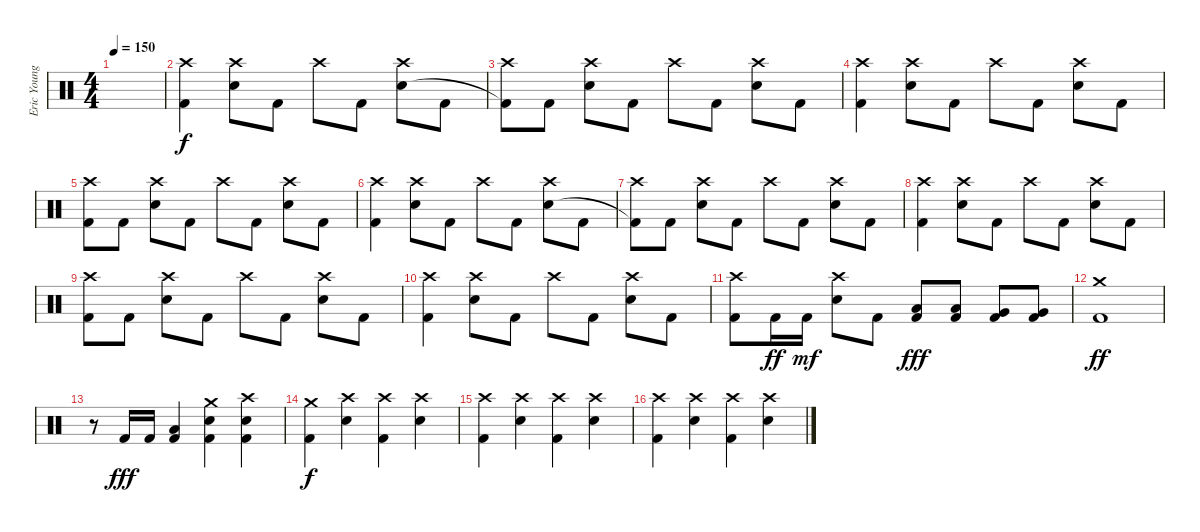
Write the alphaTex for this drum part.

\track ("Eric Young" "Eric Young") {instrument percussion}
\staff {score}
\articulation defaults
\ts (4 4)
\tempo 150
\clef neutral
\ks c
|
("Crash high (hit)" "Kick (hit) 2").4 ("Crash high (hit)" "Electric Snare (hit)").8 "Kick (hit) 2".8 "Crash high (hit)".8 "Kick (hit) 2".8 ("Crash high (hit)" "Electric Snare (hit)").8 "Kick (hit) 2".8 |
("Crash high (hit)" "Kick (hit) 2"{t}).8 "Kick (hit) 2".8 ("Crash high (hit)" "Electric Snare (hit)").8 "Kick (hit) 2".8 "Crash high (hit)".8 "Kick (hit) 2".8 ("Crash high (hit)" "Electric Snare (hit)").8 "Kick (hit) 2".8 |
("Crash high (hit)" "Kick (hit) 2").4 ("Crash high (hit)" "Electric Snare (hit)").8 "Kick (hit) 2".8 "Crash high (hit)".8 "Kick (hit) 2".8 ("Crash high (hit)" "Electric Snare (hit)").8 "Kick (hit) 2".8 |
("Crash high (hit)" "Kick (hit) 2").8 "Kick (hit) 2".8 ("Crash high (hit)" "Electric Snare (hit)").8 "Kick (hit) 2".8 "Crash high (hit)".8 "Kick (hit) 2".8 ("Crash high (hit)" "Electric Snare (hit)").8 "Kick (hit) 2".8 |
("Crash high (hit)" "Kick (hit) 2").4 ("Crash high (hit)" "Electric Snare (hit)").8 "Kick (hit) 2".8 "Crash high (hit)".8 "Kick (hit) 2".8 ("Crash high (hit)" "Electric Snare (hit)").8 "Kick (hit) 2".8 |
("Crash high (hit)" "Kick (hit) 2"{t}).8 "Kick (hit) 2".8 ("Crash high (hit)" "Electric Snare (hit)").8 "Kick (hit) 2".8 "Crash high (hit)".8 "Kick (hit) 2".8 ("Crash high (hit)" "Electric Snare (hit)").8 "Kick (hit) 2".8 |
("Crash high (hit)" "Kick (hit) 2").4 ("Crash high (hit)" "Electric Snare (hit)").8 "Kick (hit) 2".8 "Crash high (hit)".8 "Kick (hit) 2".8 ("Crash high (hit)" "Electric Snare (hit)").8 "Kick (hit) 2".8 |
("Crash high (hit)" "Kick (hit) 2").8 "Kick (hit) 2".8 ("Crash high (hit)" "Electric Snare (hit)").8 "Kick (hit) 2".8 "Crash high (hit)".8 "Kick (hit) 2".8 ("Crash high (hit)" "Electric Snare (hit)").8 "Kick (hit) 2".8 |
("Crash high (hit)" "Kick (hit) 2").4 ("Crash high (hit)" "Electric Snare (hit)").8 "Kick (hit) 2".8 "Crash high (hit)".8 "Kick (hit) 2".8 ("Crash high (hit)" "Electric Snare (hit)").8 "Kick (hit) 2".8 |
("Crash high (hit)" "Kick (hit) 2").8 "Kick (hit) 2".16{dy ff} "Kick (hit) 2".16{dy mf} ("Crash high (hit)" "Electric Snare (hit)").8 "Kick (hit) 2".8 ("Low Tom (hit)" "Kick (hit) 2").8{dy fff} ("Low Tom (hit)" "Kick (hit) 2").8 ("Very Low Tom (hit)" "Kick (hit) 2").8 ("Very Low Tom (hit)" "Kick (hit) 2").8 |
("Crash medium (hit)" "Kick (hit) 2").1{dy ff} |
r.8 "Kick (hit) 2".16{dy fff} "Kick (hit) 2".16 ("Low Tom (hit)" "Kick (hit) 2").4 ("Crash medium (hit)" "Electric Snare (hit)" "Kick (hit) 2").4 ("Crash high (hit)" "Electric Snare (hit)" "Kick (hit) 2").4 |
("Crash medium (hit)" "Kick (hit) 2").4{dy f} ("Crash high (hit)" "Electric Snare (hit)").4 ("Crash high (hit)" "Kick (hit) 2").4 ("Crash high (hit)" "Electric Snare (hit)").4 |
("Crash high (hit)" "Kick (hit) 2").4 ("Crash high (hit)" "Electric Snare (hit)").4 ("Crash high (hit)" "Kick (hit) 2").4 ("Crash high (hit)" "Electric Snare (hit)").4 |
("Crash high (hit)" "Kick (hit) 2").4 ("Crash high (hit)" "Electric Snare (hit)").4 ("Crash high (hit)" "Kick (hit) 2").4 ("Crash high (hit)" "Electric Snare (hit)").4
